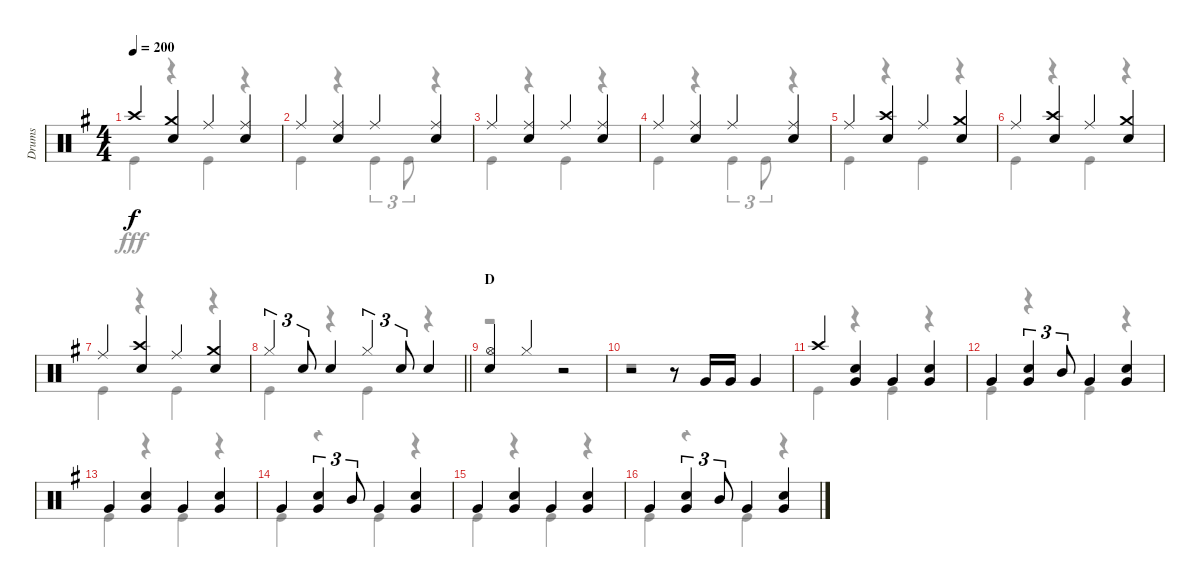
\track ("Drums" "Drums") {instrument percussion}
\staff {score}
\articulation defaults
\voice
\ts (4 4)
\tempo 200
\clef neutral
\ks g "Crash high (hit)".4{dy f}
("Crash medium (hit)" "Snare (hit) 2").4 "Ride (middle)".4 ("Ride (middle)" "Snare (hit) 2").4 |
"Ride (middle)".4 ("Ride (middle)" "Snare (hit) 2").4 "Ride (middle)".4 ("Ride (middle)" "Snare (hit) 2").4 |
"Ride (middle)".4 ("Ride (middle)" "Snare (hit) 2").4 "Ride (middle)".4 ("Ride (middle)" "Snare (hit) 2").4 |
"Ride (middle)".4 ("Ride (middle)" "Snare (hit) 2").4 "Ride (middle)".4 ("Ride (middle)" "Snare (hit) 2").4 |
"Ride (middle)".4 ("Crash high (hit)" "Snare (hit) 2").4 "Ride (middle)".4 ("Crash medium (hit)" "Snare (hit) 2").4 |
"Ride (middle)".4 ("Crash high (hit)" "Snare (hit) 2").4 "Ride (middle)".4 ("Crash medium (hit)" "Snare (hit) 2").4 |
"Ride (middle)".4 ("Crash high (hit)" "Snare (hit) 2").4 "Ride (middle)".4 ("Crash medium (hit)" "Snare (hit) 2").4 |
\barLineRight lightlight "Hi-Hat (closed)".4{tu (3 2)} "Snare (hit) 2".8{tu (3 2)} "Snare (hit) 2".4 "Hi-Hat (closed)".4{tu (3 2)} "Snare (hit) 2".8{tu (3 2)} "Snare (hit) 2".4
|
\section ("" "D")
("Hi-Hat (open)" "Snare (hit) 2").4 "Hi-Hat (closed)".4 r.2 |
r.2 r.8 "Very Low Tom (hit)".16 "Very Low Tom (hit)".16 "Very Low Tom (hit)".4 |
"Crash high (hit)".4 ("Snare (hit) 2" "Very Low Tom (hit)").4 "Very Low Tom (hit)".4 ("Snare (hit) 2" "Very Low Tom (hit)").4 |
"Very Low Tom (hit)".4 ("Snare (hit) 2" "Very Low Tom (hit)").4{tu (3 2)} "Mid Tom (hit)".8{tu (3 2)} "Very Low Tom (hit)".4 ("Snare (hit) 2" "Very Low Tom (hit)").4 |
"Very Low Tom (hit)".4 ("Snare (hit) 2" "Very Low Tom (hit)").4 "Very Low Tom (hit)".4 ("Snare (hit) 2" "Very Low Tom (hit)").4 |
"Very Low Tom (hit)".4 ("Snare (hit) 2" "Very Low Tom (hit)").4{tu (3 2)} "Mid Tom (hit)".8{tu (3 2)} "Very Low Tom (hit)".4 ("Snare (hit) 2" "Very Low Tom (hit)").4 |
"Very Low Tom (hit)".4 ("Snare (hit) 2" "Very Low Tom (hit)").4 "Very Low Tom (hit)".4 ("Snare (hit) 2" "Very Low Tom (hit)").4 |
"Very Low Tom (hit)".4 ("Snare (hit) 2" "Very Low Tom (hit)").4{tu (3 2)} "Mid Tom (hit)".8{tu (3 2)} "Very Low Tom (hit)".4 ("Snare (hit) 2" "Very Low Tom (hit)").4
\voice
\clef neutral
\ottava regular
\simile none
\ks g "Kick (hit)".4{dy fff}
r.4 "Kick (hit)".4 r.4 |
"Kick (hit)".4 r.4 "Kick (hit)".4{tu (3 2)} "Kick (hit)".8{tu (3 2)} r.4 |
"Kick (hit)".4 r.4 "Kick (hit)".4 r.4 |
"Kick (hit)".4 r.4 "Kick (hit)".4{tu (3 2)} "Kick (hit)".8{tu (3 2)} r.4 |
"Kick (hit)".4 r.4 "Kick (hit)".4 r.4 |
"Kick (hit)".4 r.4 "Kick (hit)".4 r.4 |
"Kick (hit)".4 r.4 "Kick (hit)".4 r.4 |
\barLineRight lightlight "Kick (hit)".4
r.4 "Kick (hit)".4 r.4 |
r.1 |
r.1 |
"Kick (hit)".4 r.4 "Kick (hit)".4 r.4 |
"Kick (hit)".4 r.4 "Kick (hit)".4 r.4 |
"Kick (hit)".4 r.4 "Kick (hit)".4 r.4 |
"Kick (hit)".4 r.4 "Kick (hit)".4 r.4 |
"Kick (hit)".4 r.4 "Kick (hit)".4 r.4 |
"Kick (hit)".4 r.4 "Kick (hit)".4 r.4
